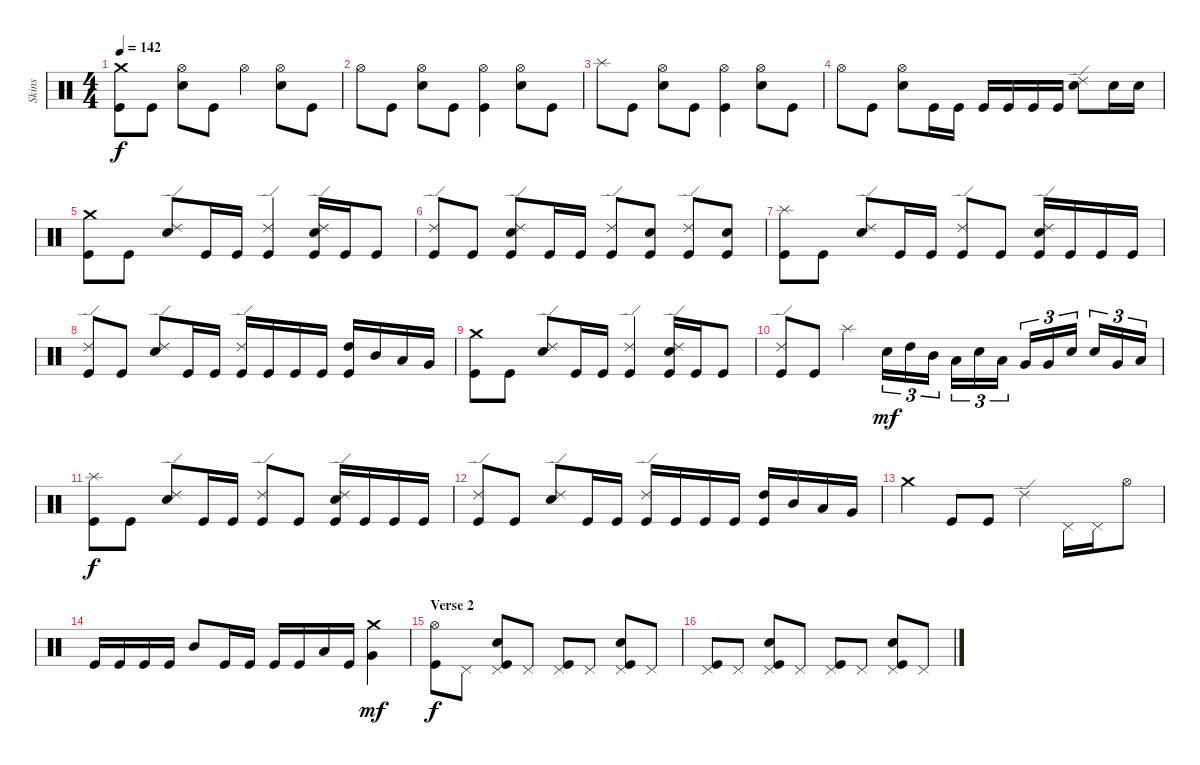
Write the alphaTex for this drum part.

\track ("Skins" "Skins") {instrument percussion}
\staff {score}
\articulation defaults
\ts (4 4)
\tempo 142
\clef neutral
\ks c
("Crash medium (hit)" "Kick (hit)").8{dy f} "Kick (hit)".8 ("Hi-Hat (open)" "Electric Snare (hit)").8 "Kick (hit)".8 "Hi-Hat (open)".4 ("Hi-Hat (open)" "Electric Snare (hit)").8 "Kick (hit)".8 |
"Hi-Hat (open)".8 "Kick (hit)".8 ("Hi-Hat (open)" "Electric Snare (hit)").8 "Kick (hit)".8 ("Hi-Hat (open)" "Kick (hit)").4 ("Hi-Hat (open)" "Electric Snare (hit)").8 "Kick (hit)".8 |
"Splash (hit)".8 "Kick (hit)".8 ("Hi-Hat (open)" "Electric Snare (hit)").8 "Kick (hit)".8 ("Hi-Hat (open)" "Kick (hit)").4 ("Hi-Hat (open)" "Electric Snare (hit)").8 "Kick (hit)".8 |
"Hi-Hat (open)".8 "Kick (hit)".8 ("Hi-Hat (open)" "Electric Snare (hit)").8 "Kick (hit)".16 "Kick (hit)".16 "Kick (hit)".16 "Kick (hit)".16 "Kick (hit)".16 "Kick (hit)".16 ("Ride (edge) 2" "Snare (hit) 2").8 "Electric Snare (hit)".16 "Electric Snare (hit)".16 |
("Crash medium (hit)" "Kick (hit)").8 "Kick (hit)".8 ("Electric Snare (hit)" "Ride (edge) 2").8 "Kick (hit)".16 "Kick (hit)".16 ("Ride (edge) 2" "Kick (hit)").4 ("Electric Snare (hit)" "Ride (edge) 2" "Kick (hit)").16 "Kick (hit)".16 "Kick (hit)".8 |
("Ride (edge) 2" "Kick (hit)").8 "Kick (hit)".8 ("Electric Snare (hit)" "Ride (edge) 2" "Kick (hit)").8 "Kick (hit)".16 "Kick (hit)".16 ("Ride (edge) 2" "Kick (hit)").8 ("Electric Snare (hit)" "Kick (hit)").8 ("Ride (edge) 2" "Kick (hit)").8 ("Electric Snare (hit)" "Kick (hit)").8 |
("Splash (hit)" "Kick (hit)").8 "Kick (hit)".8 ("Electric Snare (hit)" "Ride (edge) 2").8 "Kick (hit)".16 "Kick (hit)".16 ("Ride (edge) 2" "Kick (hit)").8 "Kick (hit)".8 ("Electric Snare (hit)" "Ride (edge) 2" "Kick (hit)").16 "Kick (hit)".16 "Kick (hit)".16 "Kick (hit)".16 |
("Ride (edge) 2" "Kick (hit)").8 "Kick (hit)".8 ("Electric Snare (hit)" "Ride (edge) 2").8 "Kick (hit)".16 "Kick (hit)".16 ("Ride (edge) 2" "Kick (hit)").16 "Kick (hit)".16 "Kick (hit)".16 "Kick (hit)".16 ("High Tom (hit)" "Kick (hit)").16 "Mid Tom (hit)".16 "Low Tom (hit)".16 "Very Low Tom (hit)".16 |
("Crash medium (hit)" "Kick (hit)").8 "Kick (hit)".8 ("Electric Snare (hit)" "Ride (edge) 2").8 "Kick (hit)".16 "Kick (hit)".16 ("Ride (edge) 2" "Kick (hit)").4 ("Electric Snare (hit)" "Ride (edge) 2" "Kick (hit)").16 "Kick (hit)".16 "Kick (hit)".8 |
("Ride (edge) 2" "Kick (hit)").8 "Kick (hit)".8 "Splash (hit)".4 "Electric Snare (hit)".16{tu (3 2) dy mf} "High Tom (hit)".16{tu (3 2)} "Mid Tom (hit)".16{tu (3 2)} "Low Tom (hit)".16{tu (3 2)} "Electric Snare (hit)".16{tu (3 2)} "Low Tom (hit)".16{tu (3 2)} "Very Low Tom (hit)".16{tu (3 2)} "Very Low Tom (hit)".16{tu (3 2)} "Electric Snare (hit)".16{tu (3 2)} "Electric Snare (hit)".16{tu (3 2)} "Very Low Tom (hit)".16{tu (3 2)} "Low Floor Tom (hit)".16{tu (3 2)} |
("Splash (hit)" "Kick (hit)").8{dy f} "Kick (hit)".8 ("Electric Snare (hit)" "Ride (edge) 2").8 "Kick (hit)".16 "Kick (hit)".16 ("Ride (edge) 2" "Kick (hit)").8 "Kick (hit)".8 ("Electric Snare (hit)" "Ride (edge) 2" "Kick (hit)").16 "Kick (hit)".16 "Kick (hit)".16 "Kick (hit)".16 |
("Ride (edge) 2" "Kick (hit)").8 "Kick (hit)".8 ("Electric Snare (hit)" "Ride (edge) 2").8 "Kick (hit)".16 "Kick (hit)".16 ("Ride (edge) 2" "Kick (hit)").16 "Kick (hit)".16 "Kick (hit)".16 "Kick (hit)".16 ("High Tom (hit)" "Kick (hit)").16 "Mid Tom (hit)".16 "Low Tom (hit)".16 "Very Low Tom (hit)".16 |
"Crash medium (hit)".4 "Kick (hit)".8 "Kick (hit)".8 "Ride (edge) 2".4 "Pedal Hi-Hat (hit)".16 "Pedal Hi-Hat (hit)".16 "Hi-Hat (open)".8 |
"Kick (hit)".16 "Kick (hit)".16 "Kick (hit)".16 "Kick (hit)".16 "Mid Tom (hit)".8 "Kick (hit)".16 "Kick (hit)".16 "Kick (hit)".16 "Kick (hit)".16 "Low Tom (hit)".16 "Kick (hit)".16 ("Crash medium (hit)" "Very Low Tom (hit)").4{dy mf} |
\section ("" "Verse 2")
("Hi-Hat (open)" "Kick (hit)").8{dy f} "Pedal Hi-Hat (hit)".8 ("Electric Snare (hit)" "Pedal Hi-Hat (hit)" "Kick (hit)").8 "Pedal Hi-Hat (hit)".8 ("Pedal Hi-Hat (hit)" "Kick (hit)").8 "Pedal Hi-Hat (hit)".8 ("Snare (hit) 2" "Pedal Hi-Hat (hit)" "Kick (hit)").8 "Pedal Hi-Hat (hit)".8 |
("Pedal Hi-Hat (hit)" "Kick (hit)").8 "Pedal Hi-Hat (hit)".8 ("Electric Snare (hit)" "Pedal Hi-Hat (hit)" "Kick (hit)").8 "Pedal Hi-Hat (hit)".8 ("Pedal Hi-Hat (hit)" "Kick (hit)").8 "Pedal Hi-Hat (hit)".8 ("Snare (hit) 2" "Pedal Hi-Hat (hit)" "Kick (hit)").8 "Pedal Hi-Hat (hit)".8
